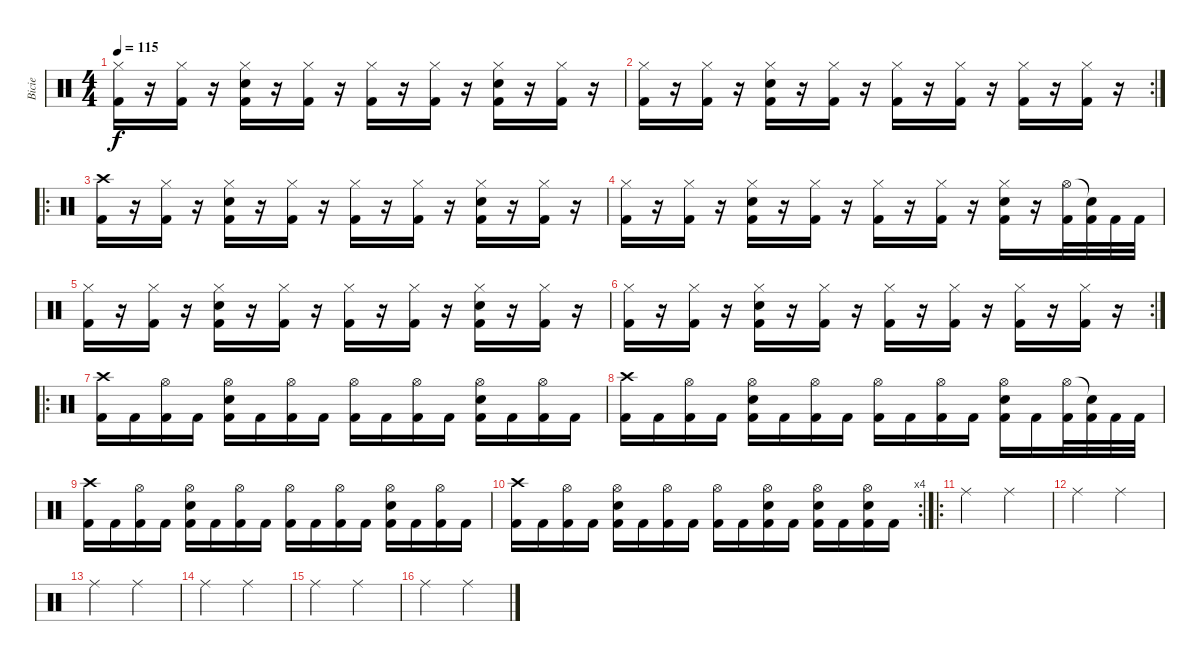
\track ("Bicie" "Bicie") {instrument percussion}
\staff {score}
\articulation defaults
\ts (4 4)
\tempo 115
\clef neutral
\ks c
("Hi-Hat (closed)" "Kick (hit) 2").16{dy f} r.16 ("Hi-Hat (closed)" "Kick (hit) 2").16 r.16 ("Hi-Hat (closed)" "Electric Snare (hit)" "Kick (hit) 2").16 r.16 ("Hi-Hat (closed)" "Kick (hit) 2").16 r.16 ("Hi-Hat (closed)" "Kick (hit) 2").16 r.16 ("Hi-Hat (closed)" "Kick (hit) 2").16 r.16 ("Hi-Hat (closed)" "Electric Snare (hit)" "Kick (hit) 2").16 r.16 ("Hi-Hat (closed)" "Kick (hit) 2").16 r.16 |
\rc 2
("Hi-Hat (closed)" "Kick (hit) 2").16 r.16 ("Hi-Hat (closed)" "Kick (hit) 2").16 r.16 ("Hi-Hat (closed)" "Electric Snare (hit)" "Kick (hit) 2").16 r.16 ("Hi-Hat (closed)" "Kick (hit) 2").16 r.16 ("Hi-Hat (closed)" "Kick (hit) 2").16 r.16 ("Hi-Hat (closed)" "Kick (hit) 2").16 r.16 ("Hi-Hat (closed)" "Kick (hit) 2").16 r.16 ("Hi-Hat (closed)" "Kick (hit) 2").16 r.16 |
\ro
("Crash high (hit)" "Kick (hit) 2").16 r.16 ("Hi-Hat (closed)" "Kick (hit) 2").16 r.16 ("Hi-Hat (closed)" "Electric Snare (hit)" "Kick (hit) 2").16 r.16 ("Hi-Hat (closed)" "Kick (hit) 2").16 r.16 ("Hi-Hat (closed)" "Kick (hit) 2").16 r.16 ("Hi-Hat (closed)" "Kick (hit) 2").16 r.16 ("Hi-Hat (closed)" "Electric Snare (hit)" "Kick (hit) 2").16 r.16 ("Hi-Hat (closed)" "Kick (hit) 2").16 r.16 |
("Hi-Hat (closed)" "Kick (hit) 2").16 r.16 ("Hi-Hat (closed)" "Kick (hit) 2").16 r.16 ("Hi-Hat (closed)" "Electric Snare (hit)" "Kick (hit) 2").16 r.16 ("Hi-Hat (closed)" "Kick (hit) 2").16 r.16 ("Hi-Hat (closed)" "Kick (hit) 2").16 r.16 ("Hi-Hat (closed)" "Kick (hit) 2").16 r.16 ("Hi-Hat (closed)" "Electric Snare (hit)" "Kick (hit) 2").16 r.16 ("Hi-Hat (open)" "Kick (hit) 2").32 ("Snare (hit)"{t} "Kick (hit) 2").32 "Kick (hit) 2".32 "Kick (hit) 2".32 |
("Hi-Hat (closed)" "Kick (hit) 2").16 r.16 ("Hi-Hat (closed)" "Kick (hit) 2").16 r.16 ("Hi-Hat (closed)" "Electric Snare (hit)" "Kick (hit) 2").16 r.16 ("Hi-Hat (closed)" "Kick (hit) 2").16 r.16 ("Hi-Hat (closed)" "Kick (hit) 2").16 r.16 ("Hi-Hat (closed)" "Kick (hit) 2").16 r.16 ("Hi-Hat (closed)" "Electric Snare (hit)" "Kick (hit) 2").16 r.16 ("Hi-Hat (closed)" "Kick (hit) 2").16 r.16 |
\rc 2
("Hi-Hat (closed)" "Kick (hit) 2").16 r.16 ("Hi-Hat (closed)" "Kick (hit) 2").16 r.16 ("Hi-Hat (closed)" "Electric Snare (hit)" "Kick (hit) 2").16 r.16 ("Hi-Hat (closed)" "Kick (hit) 2").16 r.16 ("Hi-Hat (closed)" "Kick (hit) 2").16 r.16 ("Hi-Hat (closed)" "Kick (hit) 2").16 r.16 ("Hi-Hat (closed)" "Kick (hit) 2").16 r.16 ("Hi-Hat (closed)" "Kick (hit) 2").16 r.16 |
\ro
("Crash high (hit)" "Kick (hit) 2").16 "Kick (hit) 2".16 ("Hi-Hat (open)" "Kick (hit) 2").16 "Kick (hit) 2".16 ("Hi-Hat (open)" "Electric Snare (hit)" "Kick (hit) 2").16 "Kick (hit) 2".16 ("Hi-Hat (open)" "Kick (hit) 2").16 "Kick (hit) 2".16 ("Hi-Hat (open)" "Kick (hit) 2").16 "Kick (hit) 2".16 ("Hi-Hat (open)" "Kick (hit) 2").16 "Kick (hit) 2".16 ("Hi-Hat (open)" "Electric Snare (hit)" "Kick (hit) 2").16 "Kick (hit) 2".16 ("Hi-Hat (open)" "Kick (hit) 2").16 "Kick (hit) 2".16 |
("Crash high (hit)" "Kick (hit) 2").16 "Kick (hit) 2".16 ("Hi-Hat (open)" "Kick (hit) 2").16 "Kick (hit) 2".16 ("Hi-Hat (open)" "Electric Snare (hit)" "Kick (hit) 2").16 "Kick (hit) 2".16 ("Hi-Hat (open)" "Kick (hit) 2").16 "Kick (hit) 2".16 ("Hi-Hat (open)" "Kick (hit) 2").16 "Kick (hit) 2".16 ("Hi-Hat (open)" "Kick (hit) 2").16 "Kick (hit) 2".16 ("Hi-Hat (open)" "Electric Snare (hit)" "Kick (hit) 2").16 "Kick (hit) 2".16 ("Hi-Hat (open)" "Kick (hit) 2").32 ("Snare (hit)"{t} "Kick (hit) 2").32 "Kick (hit) 2".32 "Kick (hit) 2".32 |
("Crash high (hit)" "Kick (hit) 2").16 "Kick (hit) 2".16 ("Hi-Hat (open)" "Kick (hit) 2").16 "Kick (hit) 2".16 ("Hi-Hat (open)" "Electric Snare (hit)" "Kick (hit) 2").16 "Kick (hit) 2".16 ("Hi-Hat (open)" "Kick (hit) 2").16 "Kick (hit) 2".16 ("Hi-Hat (open)" "Kick (hit) 2").16 "Kick (hit) 2".16 ("Hi-Hat (open)" "Kick (hit) 2").16 "Kick (hit) 2".16 ("Hi-Hat (open)" "Electric Snare (hit)" "Kick (hit) 2").16 "Kick (hit) 2".16 ("Hi-Hat (open)" "Kick (hit) 2").16 "Kick (hit) 2".16 |
\rc 4
("Crash high (hit)" "Kick (hit) 2").16 "Kick (hit) 2".16 ("Hi-Hat (open)" "Kick (hit) 2").16 "Kick (hit) 2".16 ("Hi-Hat (open)" "Electric Snare (hit)" "Kick (hit) 2").16 "Kick (hit) 2".16 ("Hi-Hat (open)" "Kick (hit) 2").16 "Kick (hit) 2".16 ("Hi-Hat (open)" "Kick (hit) 2").16 "Kick (hit) 2".16 ("Hi-Hat (open)" "Electric Snare (hit)" "Kick (hit) 2").16 "Kick (hit) 2".16 ("Hi-Hat (open)" "Electric Snare (hit)" "Kick (hit) 2").16 "Kick (hit) 2".16 ("Hi-Hat (open)" "Electric Snare (hit)" "Kick (hit) 2").16 "Kick (hit) 2".16 |
\ro "Ride (middle)".2 "Ride (middle)".2
|
"Ride (middle)".2 "Ride (middle)".2 |
"Ride (middle)".2 "Ride (middle)".2 |
"Ride (middle)".2 "Ride (middle)".2 |
"Ride (middle)".2 "Ride (middle)".2 |
"Ride (middle)".2 "Ride (middle)".2
